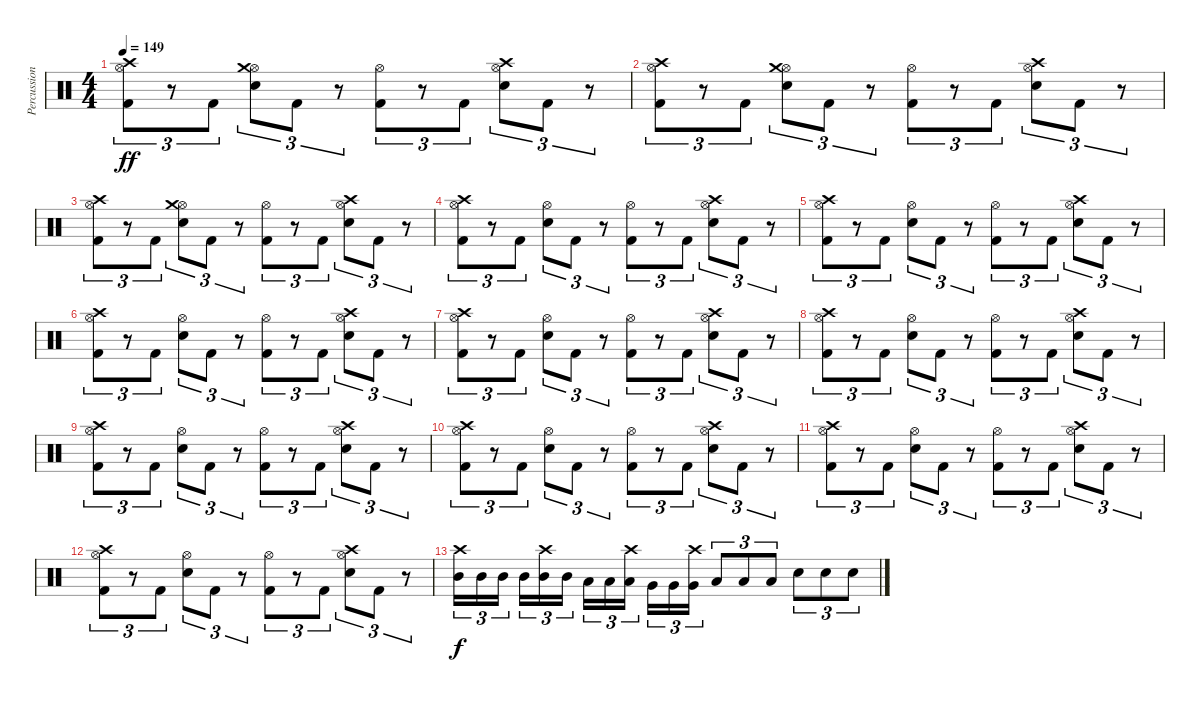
\track ("Percussion" "Percussion") {instrument percussion}
\staff {score}
\articulation defaults
\ts (4 4)
\tempo 149
\clef neutral
\ks c
("Kick (hit) 2" "Hi-Hat (open)" "Crash high (hit)").8{tu (3 2) dy ff} r.8{tu (3 2)} "Kick (hit) 2".8{tu (3 2)} ("Electric Snare (hit)" "Hi-Hat (open)" "Crash medium (hit)").8{tu (3 2)} "Kick (hit) 2".8{tu (3 2)} r.8{tu (3 2)} ("Kick (hit) 2" "Hi-Hat (open)").8{tu (3 2)} r.8{tu (3 2)} "Kick (hit) 2".8{tu (3 2)} ("Electric Snare (hit)" "Hi-Hat (open)" "Crash high (hit)").8{tu (3 2)} "Kick (hit) 2".8{tu (3 2)} r.8{tu (3 2)} |
("Kick (hit) 2" "Hi-Hat (open)" "Crash high (hit)").8{tu (3 2)} r.8{tu (3 2)} "Kick (hit) 2".8{tu (3 2)} ("Electric Snare (hit)" "Hi-Hat (open)" "Crash medium (hit)").8{tu (3 2)} "Kick (hit) 2".8{tu (3 2)} r.8{tu (3 2)} ("Kick (hit) 2" "Hi-Hat (open)").8{tu (3 2)} r.8{tu (3 2)} "Kick (hit) 2".8{tu (3 2)} ("Electric Snare (hit)" "Hi-Hat (open)" "Crash high (hit)").8{tu (3 2)} "Kick (hit) 2".8{tu (3 2)} r.8{tu (3 2)} |
("Kick (hit) 2" "Hi-Hat (open)" "Crash high (hit)").8{tu (3 2)} r.8{tu (3 2)} "Kick (hit) 2".8{tu (3 2)} ("Electric Snare (hit)" "Hi-Hat (open)" "Crash medium (hit)").8{tu (3 2)} "Kick (hit) 2".8{tu (3 2)} r.8{tu (3 2)} ("Kick (hit) 2" "Hi-Hat (open)").8{tu (3 2)} r.8{tu (3 2)} "Kick (hit) 2".8{tu (3 2)} ("Electric Snare (hit)" "Hi-Hat (open)" "Crash high (hit)").8{tu (3 2)} "Kick (hit) 2".8{tu (3 2)} r.8{tu (3 2)} |
("Kick (hit) 2" "Hi-Hat (open)" "Crash high (hit)").8{tu (3 2)} r.8{tu (3 2)} "Kick (hit) 2".8{tu (3 2)} ("Electric Snare (hit)" "Hi-Hat (open)").8{tu (3 2)} "Kick (hit) 2".8{tu (3 2)} r.8{tu (3 2)} ("Kick (hit) 2" "Hi-Hat (open)").8{tu (3 2)} r.8{tu (3 2)} "Kick (hit) 2".8{tu (3 2)} ("Electric Snare (hit)" "Hi-Hat (open)" "Crash high (hit)").8{tu (3 2)} "Kick (hit) 2".8{tu (3 2)} r.8{tu (3 2)} |
("Kick (hit) 2" "Hi-Hat (open)" "Crash high (hit)").8{tu (3 2)} r.8{tu (3 2)} "Kick (hit) 2".8{tu (3 2)} ("Electric Snare (hit)" "Hi-Hat (open)").8{tu (3 2)} "Kick (hit) 2".8{tu (3 2)} r.8{tu (3 2)} ("Kick (hit) 2" "Hi-Hat (open)").8{tu (3 2)} r.8{tu (3 2)} "Kick (hit) 2".8{tu (3 2)} ("Electric Snare (hit)" "Hi-Hat (open)" "Crash high (hit)").8{tu (3 2)} "Kick (hit) 2".8{tu (3 2)} r.8{tu (3 2)} |
("Kick (hit) 2" "Hi-Hat (open)" "Crash high (hit)").8{tu (3 2)} r.8{tu (3 2)} "Kick (hit) 2".8{tu (3 2)} ("Electric Snare (hit)" "Hi-Hat (open)").8{tu (3 2)} "Kick (hit) 2".8{tu (3 2)} r.8{tu (3 2)} ("Kick (hit) 2" "Hi-Hat (open)").8{tu (3 2)} r.8{tu (3 2)} "Kick (hit) 2".8{tu (3 2)} ("Electric Snare (hit)" "Hi-Hat (open)" "Crash high (hit)").8{tu (3 2)} "Kick (hit) 2".8{tu (3 2)} r.8{tu (3 2)} |
("Kick (hit) 2" "Hi-Hat (open)" "Crash high (hit)").8{tu (3 2)} r.8{tu (3 2)} "Kick (hit) 2".8{tu (3 2)} ("Electric Snare (hit)" "Hi-Hat (open)").8{tu (3 2)} "Kick (hit) 2".8{tu (3 2)} r.8{tu (3 2)} ("Kick (hit) 2" "Hi-Hat (open)").8{tu (3 2)} r.8{tu (3 2)} "Kick (hit) 2".8{tu (3 2)} ("Electric Snare (hit)" "Hi-Hat (open)" "Crash high (hit)").8{tu (3 2)} "Kick (hit) 2".8{tu (3 2)} r.8{tu (3 2)} |
("Kick (hit) 2" "Hi-Hat (open)" "Crash high (hit)").8{tu (3 2)} r.8{tu (3 2)} "Kick (hit) 2".8{tu (3 2)} ("Electric Snare (hit)" "Hi-Hat (open)").8{tu (3 2)} "Kick (hit) 2".8{tu (3 2)} r.8{tu (3 2)} ("Kick (hit) 2" "Hi-Hat (open)").8{tu (3 2)} r.8{tu (3 2)} "Kick (hit) 2".8{tu (3 2)} ("Electric Snare (hit)" "Hi-Hat (open)" "Crash high (hit)").8{tu (3 2)} "Kick (hit) 2".8{tu (3 2)} r.8{tu (3 2)} |
("Kick (hit) 2" "Hi-Hat (open)" "Crash high (hit)").8{tu (3 2)} r.8{tu (3 2)} "Kick (hit) 2".8{tu (3 2)} ("Snare (hit) 2" "Hi-Hat (open)").8{tu (3 2)} "Kick (hit) 2".8{tu (3 2)} r.8{tu (3 2)} ("Kick (hit) 2" "Hi-Hat (open)").8{tu (3 2)} r.8{tu (3 2)} "Kick (hit) 2".8{tu (3 2)} ("Snare (hit) 2" "Hi-Hat (open)" "Crash high (hit)").8{tu (3 2)} "Kick (hit) 2".8{tu (3 2)} r.8{tu (3 2)} |
("Kick (hit) 2" "Hi-Hat (open)" "Crash high (hit)").8{tu (3 2)} r.8{tu (3 2)} "Kick (hit) 2".8{tu (3 2)} ("Snare (hit) 2" "Hi-Hat (open)").8{tu (3 2)} "Kick (hit) 2".8{tu (3 2)} r.8{tu (3 2)} ("Kick (hit) 2" "Hi-Hat (open)").8{tu (3 2)} r.8{tu (3 2)} "Kick (hit) 2".8{tu (3 2)} ("Snare (hit) 2" "Hi-Hat (open)" "Crash high (hit)").8{tu (3 2)} "Kick (hit) 2".8{tu (3 2)} r.8{tu (3 2)} |
("Kick (hit) 2" "Hi-Hat (open)" "Crash high (hit)").8{tu (3 2)} r.8{tu (3 2)} "Kick (hit) 2".8{tu (3 2)} ("Snare (hit) 2" "Hi-Hat (open)").8{tu (3 2)} "Kick (hit) 2".8{tu (3 2)} r.8{tu (3 2)} ("Kick (hit) 2" "Hi-Hat (open)").8{tu (3 2)} r.8{tu (3 2)} "Kick (hit) 2".8{tu (3 2)} ("Snare (hit) 2" "Hi-Hat (open)" "Crash high (hit)").8{tu (3 2)} "Kick (hit) 2".8{tu (3 2)} r.8{tu (3 2)} |
("Kick (hit) 2" "Hi-Hat (open)" "Crash high (hit)").8{tu (3 2)} r.8{tu (3 2)} "Kick (hit) 2".8{tu (3 2)} ("Snare (hit) 2" "Hi-Hat (open)").8{tu (3 2)} "Kick (hit) 2".8{tu (3 2)} r.8{tu (3 2)} ("Kick (hit) 2" "Hi-Hat (open)").8{tu (3 2)} r.8{tu (3 2)} "Kick (hit) 2".8{tu (3 2)} ("Snare (hit) 2" "Hi-Hat (open)" "Crash high (hit)").8{tu (3 2)} "Kick (hit) 2".8{tu (3 2)} r.8{tu (3 2)} |
("Mid Tom (hit)" "Crash high (hit)").16{tu (3 2) dy f} "Mid Tom (hit)".16{tu (3 2)} "Mid Tom (hit)".16{tu (3 2) beam splitsecondary} "Mid Tom (hit)".16{tu (3 2)} ("Mid Tom (hit)" "Crash high (hit)").16{tu (3 2)} "Mid Tom (hit)".16{tu (3 2)} "Low Tom (hit)".16{tu (3 2)} "Low Tom (hit)".16{tu (3 2)} ("Low Tom (hit)" "Crash high (hit)").16{tu (3 2) beam splitsecondary} "Very Low Tom (hit)".16{tu (3 2)} "Very Low Tom (hit)".16{tu (3 2)} ("Very Low Tom (hit)" "Crash high (hit)").16{tu (3 2)} "Low Tom (hit)".8{tu (3 2)} "Low Tom (hit)".8{tu (3 2)} "Low Tom (hit)".8{tu (3 2)} "Electric Snare (hit)".8{tu (3 2)} "Electric Snare (hit)".8{tu (3 2)} "Electric Snare (hit)".8{tu (3 2)}
